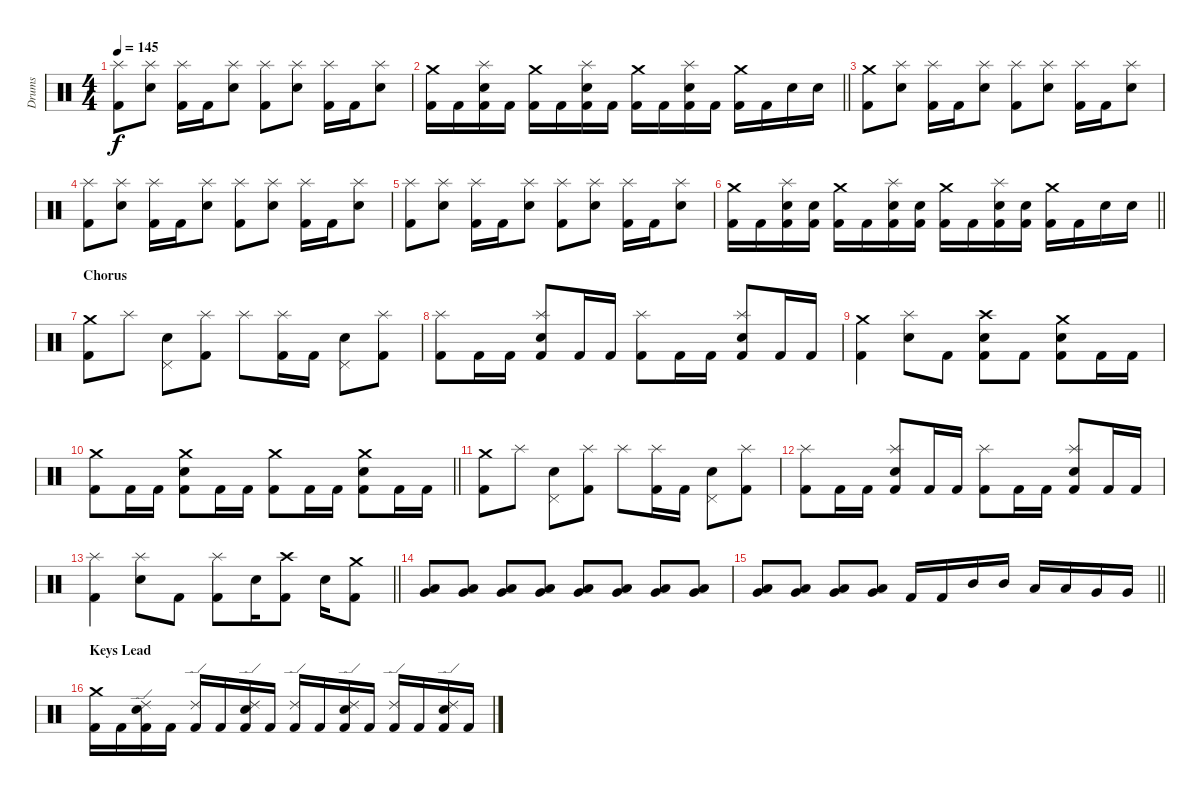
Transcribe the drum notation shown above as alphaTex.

\track ("Drums" "Drums") {instrument percussion}
\staff {score}
\articulation defaults
\ts (4 4)
\tempo 145
\clef neutral
\ks c
("Kick (hit) 2" "Splash (hit)").8{dy f} ("Snare (hit) 2" "Splash (hit)").8 ("Kick (hit) 2" "Splash (hit)").16 "Kick (hit) 2".16 ("Snare (hit) 2" "Splash (hit)").8 ("Kick (hit) 2" "Splash (hit)").8 ("Snare (hit) 2" "Splash (hit)").8 ("Kick (hit) 2" "Splash (hit)").16 "Kick (hit) 2".16 ("Snare (hit) 2" "Splash (hit)").8 |
\barLineRight lightlight
("Kick (hit) 2" "Crash medium (hit)").16 "Kick (hit) 2".16 ("Kick (hit) 2" "Snare (hit) 2" "Splash (hit)").16 "Kick (hit) 2".16 ("Kick (hit) 2" "Crash medium (hit)").16 "Kick (hit) 2".16 ("Kick (hit) 2" "Snare (hit) 2" "Splash (hit)").16 "Kick (hit) 2".16 ("Kick (hit) 2" "Crash medium (hit)").16 "Kick (hit) 2".16 ("Kick (hit) 2" "Snare (hit) 2" "Splash (hit)").16 "Kick (hit) 2".16 ("Kick (hit) 2" "Crash medium (hit)").16 "Kick (hit) 2".16 "Snare (hit) 2".16 "Snare (hit) 2".16 |
\section ("" "")
("Kick (hit) 2" "Crash medium (hit)").8 ("Snare (hit) 2" "Splash (hit)").8 ("Kick (hit) 2" "Splash (hit)").16 "Kick (hit) 2".16 ("Snare (hit) 2" "Splash (hit)").8 ("Kick (hit) 2" "Splash (hit)").8 ("Snare (hit) 2" "Splash (hit)").8 ("Kick (hit) 2" "Splash (hit)").16 "Kick (hit) 2".16 ("Snare (hit) 2" "Splash (hit)").8 |
("Kick (hit) 2" "Splash (hit)").8 ("Snare (hit) 2" "Splash (hit)").8 ("Kick (hit) 2" "Splash (hit)").16 "Kick (hit) 2".16 ("Snare (hit) 2" "Splash (hit)").8 ("Kick (hit) 2" "Splash (hit)").8 ("Snare (hit) 2" "Splash (hit)").8 ("Kick (hit) 2" "Splash (hit)").16 "Kick (hit) 2".16 ("Snare (hit) 2" "Splash (hit)").8 |
("Kick (hit) 2" "Splash (hit)").8 ("Snare (hit) 2" "Splash (hit)").8 ("Kick (hit) 2" "Splash (hit)").16 "Kick (hit) 2".16 ("Snare (hit) 2" "Splash (hit)").8 ("Kick (hit) 2" "Splash (hit)").8 ("Snare (hit) 2" "Splash (hit)").8 ("Kick (hit) 2" "Splash (hit)").16 "Kick (hit) 2".16 ("Snare (hit) 2" "Splash (hit)").8 |
\barLineRight lightlight
("Kick (hit) 2" "Crash medium (hit)").16 "Kick (hit) 2".16 ("Kick (hit) 2" "Snare (hit) 2" "Splash (hit)").16 ("Kick (hit) 2" "Snare (hit) 2").16 ("Kick (hit) 2" "Crash medium (hit)").16 "Kick (hit) 2".16 ("Kick (hit) 2" "Snare (hit) 2" "Splash (hit)").16 ("Kick (hit) 2" "Snare (hit) 2").16 ("Kick (hit) 2" "Crash medium (hit)").16 "Kick (hit) 2".16 ("Kick (hit) 2" "Snare (hit) 2" "Splash (hit)").16 ("Kick (hit) 2" "Snare (hit) 2").16 ("Kick (hit) 2" "Crash medium (hit)").16 "Kick (hit) 2".16 "Snare (hit) 2".16 "Snare (hit) 2".16 |
\section ("" "Chorus")
("Kick (hit) 2" "Crash medium (hit)").8 "Splash (hit)".8 ("Snare (hit) 2" "Pedal Hi-Hat (hit)").8 ("Kick (hit) 2" "Splash (hit)").8 "Splash (hit)".8 ("Kick (hit) 2" "Splash (hit)").16 "Kick (hit) 2".16 ("Snare (hit) 2" "Pedal Hi-Hat (hit)").8 ("Kick (hit) 2" "Splash (hit)").8 |
("Kick (hit) 2" "Splash (hit)").8 "Kick (hit) 2".16 "Kick (hit) 2".16 ("Kick (hit) 2" "Snare (hit) 2" "Splash (hit)").8 "Kick (hit) 2".16 "Kick (hit) 2".16 ("Kick (hit) 2" "Splash (hit)").8 "Kick (hit) 2".16 "Kick (hit) 2".16 ("Kick (hit) 2" "Snare (hit) 2" "Splash (hit)").8 "Kick (hit) 2".16 "Kick (hit) 2".16 |
("Kick (hit) 2" "Crash medium (hit)").4 ("Snare (hit) 2" "Splash (hit)").8 "Kick (hit) 2".8 ("Kick (hit) 2" "Snare (hit) 2" "Crash high (hit)").8 "Kick (hit) 2".8 ("Kick (hit) 2" "Snare (hit) 2" "Crash medium (hit)").8 "Kick (hit) 2".16 "Kick (hit) 2".16 |
\barLineRight lightlight
("Kick (hit) 2" "Crash medium (hit)").8 "Kick (hit) 2".16 "Kick (hit) 2".16 ("Kick (hit) 2" "Snare (hit) 2" "Crash medium (hit)").8 "Kick (hit) 2".16 "Kick (hit) 2".16 ("Kick (hit) 2" "Crash medium (hit)").8 "Kick (hit) 2".16 "Kick (hit) 2".16 ("Kick (hit) 2" "Snare (hit) 2" "Crash medium (hit)").8 "Kick (hit) 2".16 "Kick (hit) 2".16 |
\section ("" "")
("Kick (hit) 2" "Crash medium (hit)").8 "Splash (hit)".8 ("Snare (hit) 2" "Pedal Hi-Hat (hit)").8 ("Kick (hit) 2" "Splash (hit)").8 "Splash (hit)".8 ("Kick (hit) 2" "Splash (hit)").16 "Kick (hit) 2".16 ("Snare (hit) 2" "Pedal Hi-Hat (hit)").8 ("Kick (hit) 2" "Splash (hit)").8 |
("Kick (hit) 2" "Splash (hit)").8 "Kick (hit) 2".16 "Kick (hit) 2".16 ("Kick (hit) 2" "Snare (hit) 2" "Splash (hit)").8 "Kick (hit) 2".16 "Kick (hit) 2".16 ("Kick (hit) 2" "Splash (hit)").8 "Kick (hit) 2".16 "Kick (hit) 2".16 ("Kick (hit) 2" "Snare (hit) 2" "Splash (hit)").8 "Kick (hit) 2".16 "Kick (hit) 2".16 |
\barLineRight lightlight
("Kick (hit) 2" "Splash (hit)").4 ("Snare (hit) 2" "Splash (hit)").8 "Kick (hit) 2".8 ("Kick (hit) 2" "Splash (hit)").8 "Snare (hit) 2".16 ("Kick (hit) 2" "Crash high (hit)").8 "Snare (hit) 2".16 ("Kick (hit) 2" "Crash medium (hit)").8 |
\section ("" "")
("Low Floor Tom (hit)" "Very Low Tom (hit)").8 ("Low Floor Tom (hit)" "Very Low Tom (hit)").8 ("Low Floor Tom (hit)" "Very Low Tom (hit)").8 ("Low Floor Tom (hit)" "Very Low Tom (hit)").8 ("Low Floor Tom (hit)" "Very Low Tom (hit)").8 ("Low Floor Tom (hit)" "Very Low Tom (hit)").8 ("Low Floor Tom (hit)" "Very Low Tom (hit)").8 ("Low Floor Tom (hit)" "Very Low Tom (hit)").8 |
\barLineRight lightlight
("Low Floor Tom (hit)" "Very Low Tom (hit)").8 ("Low Floor Tom (hit)" "Very Low Tom (hit)").8 ("Low Floor Tom (hit)" "Very Low Tom (hit)").8 ("Low Floor Tom (hit)" "Very Low Tom (hit)").8 "Kick (hit) 2".16 "Kick (hit) 2".16 "Mid Tom (hit)".16 "Mid Tom (hit)".16 "Low Tom (hit)".16 "Low Tom (hit)".16 "Very Low Tom (hit)".16 "Very Low Tom (hit)".16 |
\section ("" "Keys Lead")
("Kick (hit) 2" "Crash medium (hit)").16 "Kick (hit) 2".16 ("Kick (hit) 2" "Snare (hit) 2" "Ride (edge) 2").16 "Kick (hit) 2".16 ("Kick (hit) 2" "Ride (edge) 2").16 "Kick (hit) 2".16 ("Kick (hit) 2" "Snare (hit) 2" "Ride (edge) 2").16 "Kick (hit) 2".16 ("Kick (hit) 2" "Ride (edge) 2").16 "Kick (hit) 2".16 ("Kick (hit) 2" "Snare (hit) 2" "Ride (edge) 2").16 "Kick (hit) 2".16 ("Kick (hit) 2" "Ride (edge) 2").16 "Kick (hit) 2".16 ("Kick (hit) 2" "Snare (hit) 2" "Ride (edge) 2").16 "Kick (hit) 2".16
